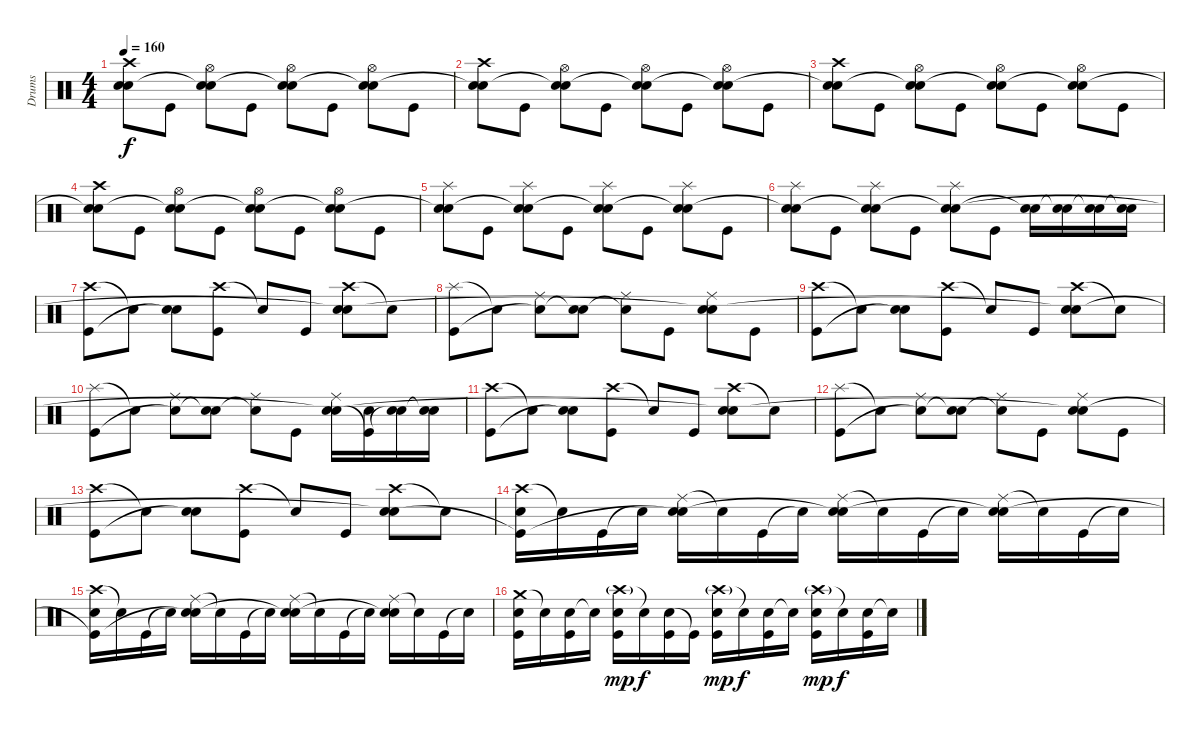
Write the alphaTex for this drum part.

\track ("Drums" "Drums") {instrument percussion}
\staff {score}
\articulation defaults
\ts (4 4)
\tempo 160
\clef neutral
\ks c
("Crash high (hit)" "Electric Snare (hit)" "Snare (hit)"{t}).8{dy f} "Kick (hit)".8 ("Hi-Hat (open)" "Electric Snare (hit)" "Snare (hit)"{t}).8 "Kick (hit)".8 ("Hi-Hat (open)" "Electric Snare (hit)" "Snare (hit)"{t}).8 "Kick (hit)".8 ("Hi-Hat (open)" "Electric Snare (hit)" "Snare (hit)"{t}).8 "Kick (hit)".8 |
("Crash high (hit)" "Electric Snare (hit)" "Snare (hit)"{t}).8 "Kick (hit)".8 ("Hi-Hat (open)" "Electric Snare (hit)" "Snare (hit)"{t}).8 "Kick (hit)".8 ("Hi-Hat (open)" "Electric Snare (hit)" "Snare (hit)"{t}).8 "Kick (hit)".8 ("Hi-Hat (open)" "Electric Snare (hit)" "Snare (hit)"{t}).8 "Kick (hit)".8 |
("Crash high (hit)" "Electric Snare (hit)" "Snare (hit)"{t}).8 "Kick (hit)".8 ("Hi-Hat (open)" "Electric Snare (hit)" "Snare (hit)"{t}).8 "Kick (hit)".8 ("Hi-Hat (open)" "Electric Snare (hit)" "Snare (hit)"{t}).8 "Kick (hit)".8 ("Hi-Hat (open)" "Electric Snare (hit)" "Snare (hit)"{t}).8 "Kick (hit)".8 |
("Crash high (hit)" "Electric Snare (hit)" "Snare (hit)"{t}).8 "Kick (hit)".8 ("Hi-Hat (open)" "Electric Snare (hit)" "Snare (hit)"{t}).8 "Kick (hit)".8 ("Hi-Hat (open)" "Electric Snare (hit)" "Snare (hit)"{t}).8 "Kick (hit)".8 ("Hi-Hat (open)" "Electric Snare (hit)" "Snare (hit)"{t}).8 "Kick (hit)".8 |
("Splash (hit)" "Electric Snare (hit)" "Snare (hit)"{t}).8 "Kick (hit)".8 ("Splash (hit)" "Electric Snare (hit)" "Snare (hit)"{t}).8 "Kick (hit)".8 ("Splash (hit)" "Electric Snare (hit)" "Snare (hit)"{t}).8 "Kick (hit)".8 ("Splash (hit)" "Electric Snare (hit)" "Snare (hit)"{t}).8 "Kick (hit)".8 |
("Splash (hit)" "Electric Snare (hit)" "Snare (hit)"{t}).8 "Kick (hit)".8 ("Splash (hit)" "Electric Snare (hit)" "Snare (hit)"{t}).8 "Kick (hit)".8 ("Splash (hit)" "Electric Snare (hit)" "Snare (hit)"{t}).8 "Kick (hit)".8 ("Electric Snare (hit)" "Snare (hit)"{t}).16 ("Electric Snare (hit)" "Snare (hit)"{t}).16 ("Electric Snare (hit)" "Snare (hit)"{t}).16 ("Electric Snare (hit)" "Snare (hit)"{t}).16 |
("Crash high (hit)" "Kick (hit)").8 "Snare (hit)"{t}.8 ("Electric Snare (hit)" "Snare (hit)"{t}).8 ("Crash high (hit)" "Kick (hit)").8 "Snare (hit)"{t}.8 "Kick (hit)".8 ("Crash high (hit)" "Electric Snare (hit)" "Snare (hit)"{t}).8 "Snare (hit)"{t}.8 |
("Splash (hit)" "Kick (hit)").8 "Snare (hit)"{t}.8 ("Ride (middle)" "Snare (hit)"{t}).8 ("Electric Snare (hit)" "Snare (hit)"{t}).8 ("Ride (middle)" "Snare (hit)"{t}).8 "Kick (hit)".8 ("Ride (middle)" "Electric Snare (hit)" "Snare (hit)"{t}).8 "Kick (hit)".8 |
("Crash high (hit)" "Kick (hit)").8 "Snare (hit)"{t}.8 ("Electric Snare (hit)" "Snare (hit)"{t}).8 ("Crash high (hit)" "Kick (hit)").8 "Snare (hit)"{t}.8 "Kick (hit)".8 ("Crash high (hit)" "Electric Snare (hit)" "Snare (hit)"{t}).8 "Snare (hit)"{t}.8 |
("Splash (hit)" "Kick (hit)").8 "Snare (hit)"{t}.8 ("Ride (middle)" "Snare (hit)"{t}).8 ("Electric Snare (hit)" "Snare (hit)"{t}).8 ("Ride (middle)" "Snare (hit)"{t}).8 "Kick (hit)".8 ("Ride (middle)" "Electric Snare (hit)" "Snare (hit)"{t}).16 ("Electric Snare (hit)" "Kick (hit)"{t}).16 ("Electric Snare (hit)" "Snare (hit)"{t}).16 ("Electric Snare (hit)" "Snare (hit)"{t}).16 |
("Crash high (hit)" "Kick (hit)").8 "Snare (hit)"{t}.8 ("Electric Snare (hit)" "Snare (hit)"{t}).8 ("Crash high (hit)" "Kick (hit)").8 "Snare (hit)"{t}.8 "Kick (hit)".8 ("Crash high (hit)" "Electric Snare (hit)" "Snare (hit)"{t}).8 "Snare (hit)"{t}.8 |
("Splash (hit)" "Kick (hit)").8 "Snare (hit)"{t}.8 ("Ride (middle)" "Snare (hit)"{t}).8 ("Electric Snare (hit)" "Snare (hit)"{t}).8 ("Ride (middle)" "Snare (hit)"{t}).8 "Kick (hit)".8 ("Ride (middle)" "Electric Snare (hit)" "Snare (hit)"{t}).8 "Kick (hit)".8 |
("Crash high (hit)" "Kick (hit)").8 "Snare (hit)"{t}.8 ("Electric Snare (hit)" "Snare (hit)"{t}).8 ("Crash high (hit)" "Kick (hit)").8 "Snare (hit)"{t}.8 "Kick (hit)".8 ("Crash high (hit)" "Electric Snare (hit)" "Snare (hit)"{t}).8 "Snare (hit)"{t}.8 |
("Crash high (hit)" "Electric Snare (hit)" "Kick (hit)"{t}).16 "Snare (hit)"{t}.16 "Kick (hit)".16 "Snare (hit)"{t}.16 ("Ride (middle)" "Electric Snare (hit)" "Snare (hit)"{t}).16 "Snare (hit)"{t}.16 "Kick (hit)".16 "Snare (hit)"{t}.16 ("Ride (middle)" "Electric Snare (hit)" "Snare (hit)"{t}).16 "Snare (hit)"{t}.16 "Kick (hit)".16 "Snare (hit)"{t}.16 ("Ride (middle)" "Electric Snare (hit)" "Snare (hit)"{t}).16 "Snare (hit)"{t}.16 "Kick (hit)".16 "Snare (hit)"{t}.16 |
("Crash high (hit)" "Electric Snare (hit)" "Kick (hit)"{t}).16 "Snare (hit)"{t}.16 "Kick (hit)".16 "Snare (hit)"{t}.16 ("Ride (middle)" "Electric Snare (hit)" "Snare (hit)"{t}).16 "Snare (hit)"{t}.16 "Kick (hit)".16 "Snare (hit)"{t}.16 ("Ride (middle)" "Electric Snare (hit)" "Snare (hit)"{t}).16 "Snare (hit)"{t}.16 "Kick (hit)".16 "Snare (hit)"{t}.16 ("Ride (middle)" "Electric Snare (hit)" "Snare (hit)"{t}).16 "Snare (hit)"{t}.16 "Kick (hit)".16 "Snare (hit)"{t}.16 |
("Crash medium (hit)" "Electric Snare (hit)" "Kick (hit)").16 "Snare (hit)"{t}.16 ("Electric Snare (hit)" "Kick (hit)").16 "Snare (hit)"{t}.16 ("Crash high (hit)"{g} "Electric Snare (hit)" "Kick (hit)").16{dy mp} "Snare (hit)"{t}.16{dy f} ("Electric Snare (hit)" "Kick (hit)").16 "Kick (hit)"{t}.16 ("Crash high (hit)"{g} "Electric Snare (hit)" "Kick (hit)").16{dy mp} "Snare (hit)"{t}.16{dy f} ("Electric Snare (hit)" "Kick (hit)").16 "Snare (hit)"{t}.16 ("Crash high (hit)"{g} "Electric Snare (hit)" "Kick (hit)").16{dy mp} "Snare (hit)"{t}.16{dy f} ("Electric Snare (hit)" "Kick (hit)").16 "Snare (hit)"{t}.16
